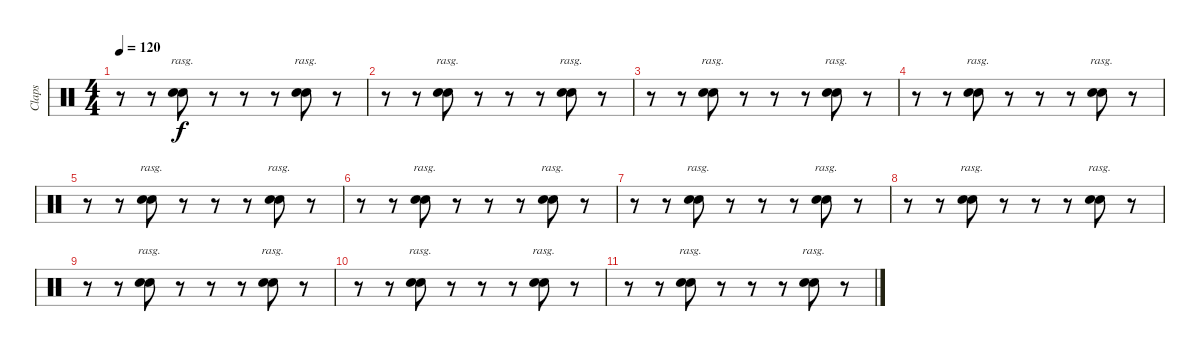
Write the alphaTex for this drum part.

\track ("Claps" "Claps") {instrument percussion}
\staff {score}
\articulation defaults
\ts (4 4)
\tempo 120
\clef neutral
\ks c
r.8{dy f} r.8 ("Hand Clap (hit)" "Hand Clap (hit)").8{bd 60 rasg ii} r.8 r.8 r.8 ("Hand Clap (hit)" "Hand Clap (hit)").8{bd 60 rasg ii} r.8 |
r.8 r.8 ("Hand Clap (hit)" "Hand Clap (hit)").8{bd 60 rasg ii} r.8 r.8 r.8 ("Hand Clap (hit)" "Hand Clap (hit)").8{bd 60 rasg ii} r.8 |
r.8 r.8 ("Hand Clap (hit)" "Hand Clap (hit)").8{bd 60 rasg ii} r.8 r.8 r.8 ("Hand Clap (hit)" "Hand Clap (hit)").8{bd 60 rasg ii} r.8 |
r.8 r.8 ("Hand Clap (hit)" "Hand Clap (hit)").8{bd 60 rasg ii} r.8 r.8 r.8 ("Hand Clap (hit)" "Hand Clap (hit)").8{bd 60 rasg ii} r.8 |
r.8 r.8 ("Hand Clap (hit)" "Hand Clap (hit)").8{bd 60 rasg ii} r.8 r.8 r.8 ("Hand Clap (hit)" "Hand Clap (hit)").8{bd 60 rasg ii} r.8 |
r.8 r.8 ("Hand Clap (hit)" "Hand Clap (hit)").8{bd 60 rasg ii} r.8 r.8 r.8 ("Hand Clap (hit)" "Hand Clap (hit)").8{bd 60 rasg ii} r.8 |
r.8 r.8 ("Hand Clap (hit)" "Hand Clap (hit)").8{bd 60 rasg ii} r.8 r.8 r.8 ("Hand Clap (hit)" "Hand Clap (hit)").8{bd 60 rasg ii} r.8 |
r.8 r.8 ("Hand Clap (hit)" "Hand Clap (hit)").8{bd 60 rasg ii} r.8 r.8 r.8 ("Hand Clap (hit)" "Hand Clap (hit)").8{bd 60 rasg ii} r.8 |
r.8 r.8 ("Hand Clap (hit)" "Hand Clap (hit)").8{bd 60 rasg ii} r.8 r.8 r.8 ("Hand Clap (hit)" "Hand Clap (hit)").8{bd 60 rasg ii} r.8 |
r.8 r.8 ("Hand Clap (hit)" "Hand Clap (hit)").8{bd 60 rasg ii} r.8 r.8 r.8 ("Hand Clap (hit)" "Hand Clap (hit)").8{bd 60 rasg ii} r.8 |
r.8 r.8 ("Hand Clap (hit)" "Hand Clap (hit)").8{bd 60 rasg ii} r.8 r.8 r.8 ("Hand Clap (hit)" "Hand Clap (hit)").8{bd 60 rasg ii} r.8
